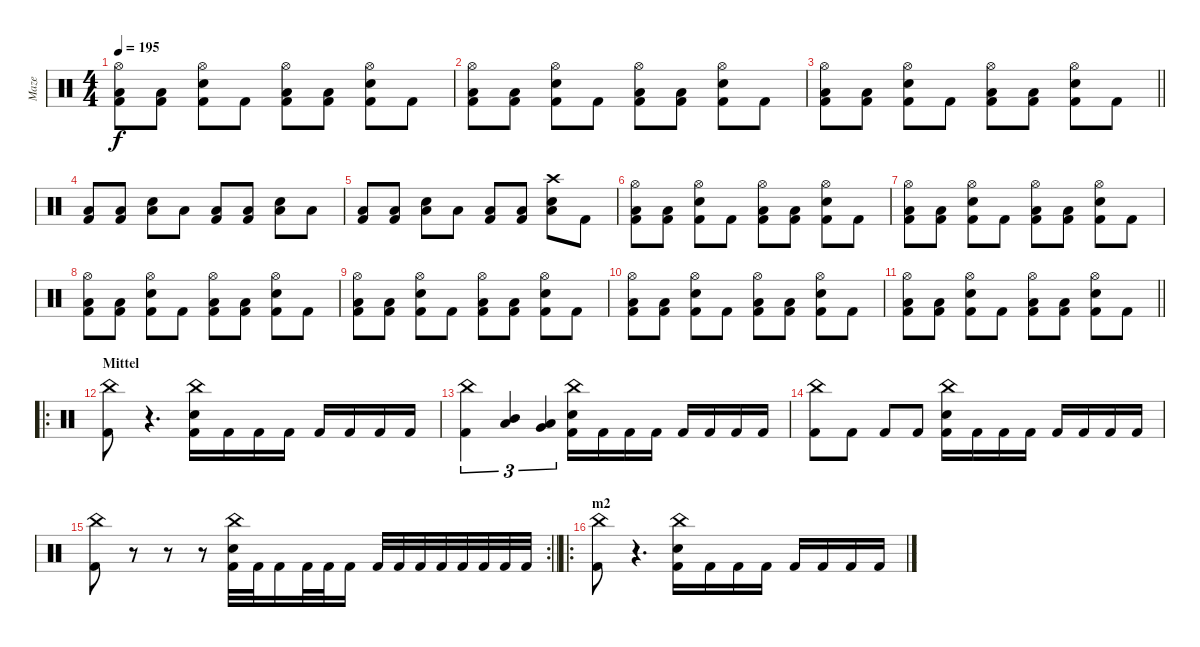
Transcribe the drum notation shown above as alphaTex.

\track ("Maze" "Maze") {instrument percussion}
\staff
\articulation defaults
\ts (4 4)
\tempo 195
\clef neutral
\ks c
("Hi-Hat (open)" "Low Tom (hit)" "Kick (hit) 2").8{dy f} ("Low Tom (hit)" "Kick (hit) 2").8 ("Snare (hit) 2" "Hi-Hat (open)" "Kick (hit) 2").8 "Kick (hit) 2".8 ("Hi-Hat (open)" "Low Tom (hit)" "Kick (hit) 2").8 ("Low Tom (hit)" "Kick (hit) 2").8 ("Snare (hit) 2" "Hi-Hat (open)" "Kick (hit) 2").8 "Kick (hit) 2".8 |
("Hi-Hat (open)" "Low Tom (hit)" "Kick (hit) 2").8 ("Low Tom (hit)" "Kick (hit) 2").8 ("Snare (hit) 2" "Hi-Hat (open)" "Kick (hit) 2").8 "Kick (hit) 2".8 ("Hi-Hat (open)" "Low Tom (hit)" "Kick (hit) 2").8 ("Low Tom (hit)" "Kick (hit) 2").8 ("Snare (hit) 2" "Hi-Hat (open)" "Kick (hit) 2").8 "Kick (hit) 2".8 |
\barLineRight lightlight
("Hi-Hat (open)" "Low Tom (hit)" "Kick (hit) 2").8 ("Low Tom (hit)" "Kick (hit) 2").8 ("Snare (hit) 2" "Hi-Hat (open)" "Kick (hit) 2").8 "Kick (hit) 2".8 ("Hi-Hat (open)" "Low Tom (hit)" "Kick (hit) 2").8 ("Low Tom (hit)" "Kick (hit) 2").8 ("Snare (hit) 2" "Hi-Hat (open)" "Kick (hit) 2").8 "Kick (hit) 2".8 |
("Low Tom (hit)" "Kick (hit) 2").8 ("Low Tom (hit)" "Kick (hit) 2").8 ("Snare (hit) 2" "Low Tom (hit)").8 "Low Tom (hit)".8 ("Low Tom (hit)" "Kick (hit) 2").8 ("Low Tom (hit)" "Kick (hit) 2").8 ("Snare (hit) 2" "Low Tom (hit)").8 "Low Tom (hit)".8 |
("Low Tom (hit)" "Kick (hit) 2").8 ("Low Tom (hit)" "Kick (hit) 2").8 ("Snare (hit) 2" "Low Tom (hit)").8 "Low Tom (hit)".8 ("Low Tom (hit)" "Kick (hit) 2").8 ("Low Tom (hit)" "Kick (hit) 2").8 ("Crash high (hit)" "Snare (hit) 2" "Low Tom (hit)").8 "Kick (hit) 2".8 |
("Hi-Hat (open)" "Low Tom (hit)" "Kick (hit) 2").8 ("Low Tom (hit)" "Kick (hit) 2").8 ("Snare (hit) 2" "Hi-Hat (open)" "Kick (hit) 2").8 "Kick (hit) 2".8 ("Hi-Hat (open)" "Low Tom (hit)" "Kick (hit) 2").8 ("Low Tom (hit)" "Kick (hit) 2").8 ("Snare (hit) 2" "Hi-Hat (open)" "Kick (hit) 2").8 "Kick (hit) 2".8 |
("Hi-Hat (open)" "Low Tom (hit)" "Kick (hit) 2").8 ("Low Tom (hit)" "Kick (hit) 2").8 ("Snare (hit) 2" "Hi-Hat (open)" "Kick (hit) 2").8 "Kick (hit) 2".8 ("Hi-Hat (open)" "Low Tom (hit)" "Kick (hit) 2").8 ("Low Tom (hit)" "Kick (hit) 2").8 ("Snare (hit) 2" "Hi-Hat (open)" "Kick (hit) 2").8 "Kick (hit) 2".8 |
("Hi-Hat (open)" "Low Tom (hit)" "Kick (hit) 2").8 ("Low Tom (hit)" "Kick (hit) 2").8 ("Snare (hit) 2" "Hi-Hat (open)" "Kick (hit) 2").8 "Kick (hit) 2".8 ("Hi-Hat (open)" "Low Tom (hit)" "Kick (hit) 2").8 ("Low Tom (hit)" "Kick (hit) 2").8 ("Snare (hit) 2" "Hi-Hat (open)" "Kick (hit) 2").8 "Kick (hit) 2".8 |
("Hi-Hat (open)" "Low Tom (hit)" "Kick (hit) 2").8 ("Low Tom (hit)" "Kick (hit) 2").8 ("Snare (hit) 2" "Hi-Hat (open)" "Kick (hit) 2").8 "Kick (hit) 2".8 ("Hi-Hat (open)" "Low Tom (hit)" "Kick (hit) 2").8 ("Low Tom (hit)" "Kick (hit) 2").8 ("Snare (hit) 2" "Hi-Hat (open)" "Kick (hit) 2").8 "Kick (hit) 2".8 |
("Hi-Hat (open)" "Low Tom (hit)" "Kick (hit) 2").8 ("Low Tom (hit)" "Kick (hit) 2").8 ("Snare (hit) 2" "Hi-Hat (open)" "Kick (hit) 2").8 "Kick (hit) 2".8 ("Hi-Hat (open)" "Low Tom (hit)" "Kick (hit) 2").8 ("Low Tom (hit)" "Kick (hit) 2").8 ("Snare (hit) 2" "Hi-Hat (open)" "Kick (hit) 2").8 "Kick (hit) 2".8 |
\barLineRight lightlight
("Hi-Hat (open)" "Low Tom (hit)" "Kick (hit) 2").8 ("Low Tom (hit)" "Kick (hit) 2").8 ("Snare (hit) 2" "Hi-Hat (open)" "Kick (hit) 2").8 "Kick (hit) 2".8 ("Hi-Hat (open)" "Low Tom (hit)" "Kick (hit) 2").8 ("Low Tom (hit)" "Kick (hit) 2").8 ("Snare (hit) 2" "Hi-Hat (open)" "Kick (hit) 2").8 "Kick (hit) 2".8 |
\ro
\section ("" "Mittel")
("China (hit)" "Kick (hit) 2").8 r.4{d} ("Snare (hit) 2" "China (hit)" "Kick (hit) 2").16 "Kick (hit) 2".16 "Kick (hit) 2".16 "Kick (hit) 2".16 "Kick (hit) 2".16 "Kick (hit) 2".16 "Kick (hit) 2".16 "Kick (hit) 2".16 |
("China (hit)" "Kick (hit) 2").4{tu (3 2)} ("Mid Tom (hit)" "Low Tom (hit)").4{tu (3 2)} ("Low Tom (hit)" "Very Low Tom (hit)").4{tu (3 2)} ("Snare (hit) 2" "China (hit)" "Kick (hit) 2").16 "Kick (hit) 2".16 "Kick (hit) 2".16 "Kick (hit) 2".16 "Kick (hit) 2".16 "Kick (hit) 2".16 "Kick (hit) 2".16 "Kick (hit) 2".16 |
("China (hit)" "Kick (hit) 2").8 "Kick (hit) 2".8 "Kick (hit) 2".8 "Kick (hit) 2".8 ("Snare (hit) 2" "China (hit)" "Kick (hit) 2").16 "Kick (hit) 2".16 "Kick (hit) 2".16 "Kick (hit) 2".16 "Kick (hit) 2".16 "Kick (hit) 2".16 "Kick (hit) 2".16 "Kick (hit) 2".16 |
\rc 2
\barLineRight lightlight
("China (hit)" "Kick (hit) 2").8 r.8 r.8 r.8 ("Snare (hit) 2" "China (hit)" "Kick (hit) 2").32 "Kick (hit) 2".32 "Kick (hit) 2".16 "Kick (hit) 2".32 "Kick (hit) 2".32 "Kick (hit) 2".16 "Kick (hit) 2".32 "Kick (hit) 2".32 "Kick (hit) 2".32 "Kick (hit) 2".32 "Kick (hit) 2".32 "Kick (hit) 2".32 "Kick (hit) 2".32 "Kick (hit) 2".32 |
\ro
\section ("" "m2")
("China (hit)" "Kick (hit) 2").8 r.4{d} ("Snare (hit) 2" "China (hit)" "Kick (hit) 2").16 "Kick (hit) 2".16 "Kick (hit) 2".16 "Kick (hit) 2".16 "Kick (hit) 2".16 "Kick (hit) 2".16 "Kick (hit) 2".16 "Kick (hit) 2".16
